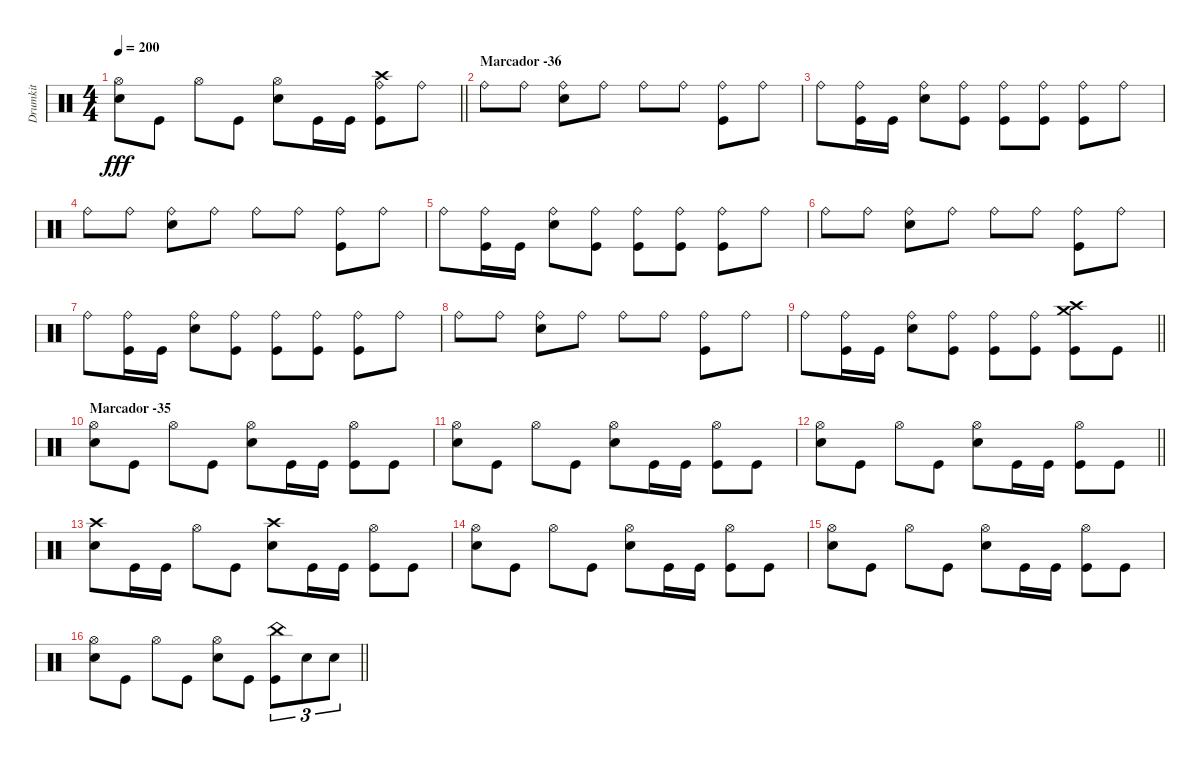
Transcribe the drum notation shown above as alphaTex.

\track ("Drumkit" "Drumkit") {instrument percussion}
\staff {score}
\articulation defaults
\ts (4 4)
\tempo 200
\clef neutral
\barLineRight lightlight
\ks c
("Hi-Hat (open)" "Snare (hit) 2").8{dy fff} "Kick (hit)".8 "Hi-Hat (open)".8 "Kick (hit)".8 ("Hi-Hat (open)" "Snare (hit) 2").8 "Kick (hit)".16 "Kick (hit)".16 ("Crash high (hit)" "Ride (bell)" "Kick (hit)").8 "Ride (bell)".8 |
\section ("" "Marcador -36")
"Ride (bell)".8 "Ride (bell)".8 ("Ride (bell)" "Snare (hit) 2").8 "Ride (bell)".8 "Ride (bell)".8 "Ride (bell)".8 ("Ride (bell)" "Kick (hit)").8 "Ride (bell)".8 |
"Ride (bell)".8 ("Ride (bell)" "Kick (hit)").16 "Kick (hit)".16 ("Ride (bell)" "Snare (hit) 2").8 ("Ride (bell)" "Kick (hit)").8 ("Ride (bell)" "Kick (hit)").8 ("Ride (bell)" "Kick (hit)").8 ("Ride (bell)" "Kick (hit)").8 "Ride (bell)".8 |
"Ride (bell)".8 "Ride (bell)".8 ("Ride (bell)" "Snare (hit) 2").8 "Ride (bell)".8 "Ride (bell)".8 "Ride (bell)".8 ("Ride (bell)" "Kick (hit)").8 "Ride (bell)".8 |
"Ride (bell)".8 ("Ride (bell)" "Kick (hit)").16 "Kick (hit)".16 ("Ride (bell)" "Snare (hit) 2").8 ("Ride (bell)" "Kick (hit)").8 ("Ride (bell)" "Kick (hit)").8 ("Ride (bell)" "Kick (hit)").8 ("Ride (bell)" "Kick (hit)").8 "Ride (bell)".8 |
"Ride (bell)".8 "Ride (bell)".8 ("Ride (bell)" "Snare (hit) 2").8 "Ride (bell)".8 "Ride (bell)".8 "Ride (bell)".8 ("Ride (bell)" "Kick (hit)").8 "Ride (bell)".8 |
"Ride (bell)".8 ("Ride (bell)" "Kick (hit)").16 "Kick (hit)".16 ("Ride (bell)" "Snare (hit) 2").8 ("Ride (bell)" "Kick (hit)").8 ("Ride (bell)" "Kick (hit)").8 ("Ride (bell)" "Kick (hit)").8 ("Ride (bell)" "Kick (hit)").8 "Ride (bell)".8 |
"Ride (bell)".8 "Ride (bell)".8 ("Ride (bell)" "Snare (hit) 2").8 "Ride (bell)".8 "Ride (bell)".8 "Ride (bell)".8 ("Ride (bell)" "Kick (hit)").8 "Ride (bell)".8 |
\barLineRight lightlight "Ride (bell)".8
("Ride (bell)" "Kick (hit)").16 "Kick (hit)".16 ("Ride (bell)" "Snare (hit) 2").8 ("Ride (bell)" "Kick (hit)").8 ("Ride (bell)" "Kick (hit)").8 ("Ride (bell)" "Kick (hit)").8 ("Crash high (hit)" "Crash medium (hit)" "Kick (hit)").8 "Kick (hit)".8 |
\section ("" "Marcador -35")
("Hi-Hat (open)" "Snare (hit) 2").8 "Kick (hit)".8 "Hi-Hat (open)".8 "Kick (hit)".8 ("Hi-Hat (open)" "Snare (hit) 2").8 "Kick (hit)".16 "Kick (hit)".16 ("Hi-Hat (open)" "Kick (hit)").8 "Kick (hit)".8 |
("Hi-Hat (open)" "Snare (hit) 2").8 "Kick (hit)".8 "Hi-Hat (open)".8 "Kick (hit)".8 ("Hi-Hat (open)" "Snare (hit) 2").8 "Kick (hit)".16 "Kick (hit)".16 ("Hi-Hat (open)" "Kick (hit)").8 "Kick (hit)".8 |
\barLineRight lightlight
("Hi-Hat (open)" "Snare (hit) 2").8 "Kick (hit)".8 "Hi-Hat (open)".8 "Kick (hit)".8 ("Hi-Hat (open)" "Snare (hit) 2").8 "Kick (hit)".16 "Kick (hit)".16 ("Hi-Hat (open)" "Kick (hit)").8 "Kick (hit)".8 |
("Crash high (hit)" "Snare (hit) 2").8 "Kick (hit)".16 "Kick (hit)".16 "Hi-Hat (open)".8 "Kick (hit)".8 ("Crash high (hit)" "Snare (hit) 2").8 "Kick (hit)".16 "Kick (hit)".16 ("Hi-Hat (open)" "Kick (hit)").8 "Kick (hit)".8 |
("Hi-Hat (open)" "Snare (hit) 2").8 "Kick (hit)".8 "Hi-Hat (open)".8 "Kick (hit)".8 ("Hi-Hat (open)" "Snare (hit) 2").8 "Kick (hit)".16 "Kick (hit)".16 ("Hi-Hat (open)" "Kick (hit)").8 "Kick (hit)".8 |
("Hi-Hat (open)" "Snare (hit) 2").8 "Kick (hit)".8 "Hi-Hat (open)".8 "Kick (hit)".8 ("Hi-Hat (open)" "Snare (hit) 2").8 "Kick (hit)".16 "Kick (hit)".16 ("Hi-Hat (open)" "Kick (hit)").8 "Kick (hit)".8 |
\barLineRight lightlight
("Hi-Hat (open)" "Snare (hit) 2").8 "Kick (hit)".8 "Hi-Hat (open)".8 "Kick (hit)".8 ("Hi-Hat (open)" "Snare (hit) 2").8 "Kick (hit)".8 ("China (hit)" "Kick (hit)").8{tu (3 2)} "Snare (hit) 2".8{tu (3 2)} "Snare (hit) 2".8{tu (3 2)}
